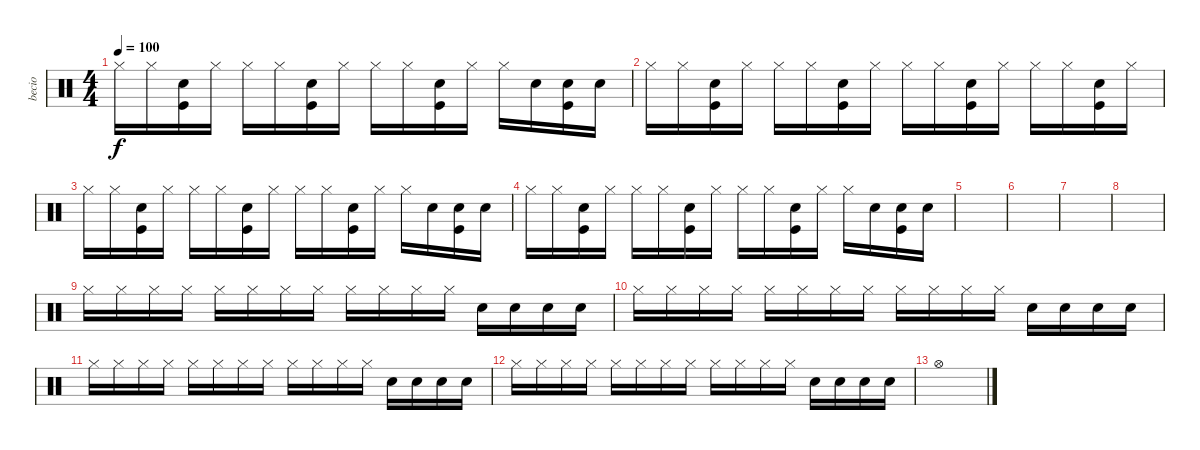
\track ("becio" "becio") {instrument percussion}
\staff {score}
\articulation defaults
\ts (4 4)
\tempo 100
\clef neutral
\ks c "Hi-Hat (closed)".16{dy f} "Hi-Hat (closed)".16
("Electric Snare (hit)" "Kick (hit)").16 "Hi-Hat (closed)".16 "Hi-Hat (closed)".16 "Hi-Hat (closed)".16 ("Electric Snare (hit)" "Kick (hit)").16 "Hi-Hat (closed)".16 "Hi-Hat (closed)".16 "Hi-Hat (closed)".16 ("Electric Snare (hit)" "Kick (hit)").16 "Hi-Hat (closed)".16 "Hi-Hat (closed)".16 "Electric Snare (hit)".16 ("Electric Snare (hit)" "Kick (hit)").16 "Electric Snare (hit)".16 |
"Hi-Hat (closed)".16 "Hi-Hat (closed)".16 ("Electric Snare (hit)" "Kick (hit)").16 "Hi-Hat (closed)".16 "Hi-Hat (closed)".16 "Hi-Hat (closed)".16 ("Electric Snare (hit)" "Kick (hit)").16 "Hi-Hat (closed)".16 "Hi-Hat (closed)".16 "Hi-Hat (closed)".16 ("Electric Snare (hit)" "Kick (hit)").16 "Hi-Hat (closed)".16 "Hi-Hat (closed)".16 "Hi-Hat (closed)".16 ("Electric Snare (hit)" "Kick (hit)").16 "Hi-Hat (closed)".16 |
"Hi-Hat (closed)".16 "Hi-Hat (closed)".16 ("Electric Snare (hit)" "Kick (hit)").16 "Hi-Hat (closed)".16 "Hi-Hat (closed)".16 "Hi-Hat (closed)".16 ("Electric Snare (hit)" "Kick (hit)").16 "Hi-Hat (closed)".16 "Hi-Hat (closed)".16 "Hi-Hat (closed)".16 ("Electric Snare (hit)" "Kick (hit)").16 "Hi-Hat (closed)".16 "Hi-Hat (closed)".16 "Electric Snare (hit)".16 ("Electric Snare (hit)" "Kick (hit)").16 "Electric Snare (hit)".16 |
"Hi-Hat (closed)".16 "Hi-Hat (closed)".16 ("Electric Snare (hit)" "Kick (hit)").16 "Hi-Hat (closed)".16 "Hi-Hat (closed)".16 "Hi-Hat (closed)".16 ("Electric Snare (hit)" "Kick (hit)").16 "Hi-Hat (closed)".16 "Hi-Hat (closed)".16 "Hi-Hat (closed)".16 ("Electric Snare (hit)" "Kick (hit)").16 "Hi-Hat (closed)".16 "Hi-Hat (closed)".16 "Electric Snare (hit)".16 ("Electric Snare (hit)" "Kick (hit)").16 "Electric Snare (hit)".16 |
|
|
|
|
"Hi-Hat (closed)".16 "Hi-Hat (closed)".16 "Hi-Hat (closed)".16 "Hi-Hat (closed)".16 "Hi-Hat (closed)".16 "Hi-Hat (closed)".16 "Hi-Hat (closed)".16 "Hi-Hat (closed)".16 "Hi-Hat (closed)".16 "Hi-Hat (closed)".16 "Hi-Hat (closed)".16 "Hi-Hat (closed)".16 "Electric Snare (hit)".16 "Electric Snare (hit)".16 "Electric Snare (hit)".16 "Electric Snare (hit)".16 |
"Hi-Hat (closed)".16 "Hi-Hat (closed)".16 "Hi-Hat (closed)".16 "Hi-Hat (closed)".16 "Hi-Hat (closed)".16 "Hi-Hat (closed)".16 "Hi-Hat (closed)".16 "Hi-Hat (closed)".16 "Hi-Hat (closed)".16 "Hi-Hat (closed)".16 "Hi-Hat (closed)".16 "Hi-Hat (closed)".16 "Electric Snare (hit)".16 "Electric Snare (hit)".16 "Electric Snare (hit)".16 "Electric Snare (hit)".16 |
"Hi-Hat (closed)".16 "Hi-Hat (closed)".16 "Hi-Hat (closed)".16 "Hi-Hat (closed)".16 "Hi-Hat (closed)".16 "Hi-Hat (closed)".16 "Hi-Hat (closed)".16 "Hi-Hat (closed)".16 "Hi-Hat (closed)".16 "Hi-Hat (closed)".16 "Hi-Hat (closed)".16 "Hi-Hat (closed)".16 "Electric Snare (hit)".16 "Electric Snare (hit)".16 "Electric Snare (hit)".16 "Electric Snare (hit)".16 |
"Hi-Hat (closed)".16 "Hi-Hat (closed)".16 "Hi-Hat (closed)".16 "Hi-Hat (closed)".16 "Hi-Hat (closed)".16 "Hi-Hat (closed)".16 "Hi-Hat (closed)".16 "Hi-Hat (closed)".16 "Hi-Hat (closed)".16 "Hi-Hat (closed)".16 "Hi-Hat (closed)".16 "Hi-Hat (closed)".16 "Electric Snare (hit)".16 "Electric Snare (hit)".16 "Electric Snare (hit)".16 "Electric Snare (hit)".16 |
"Hi-Hat (open)".1
